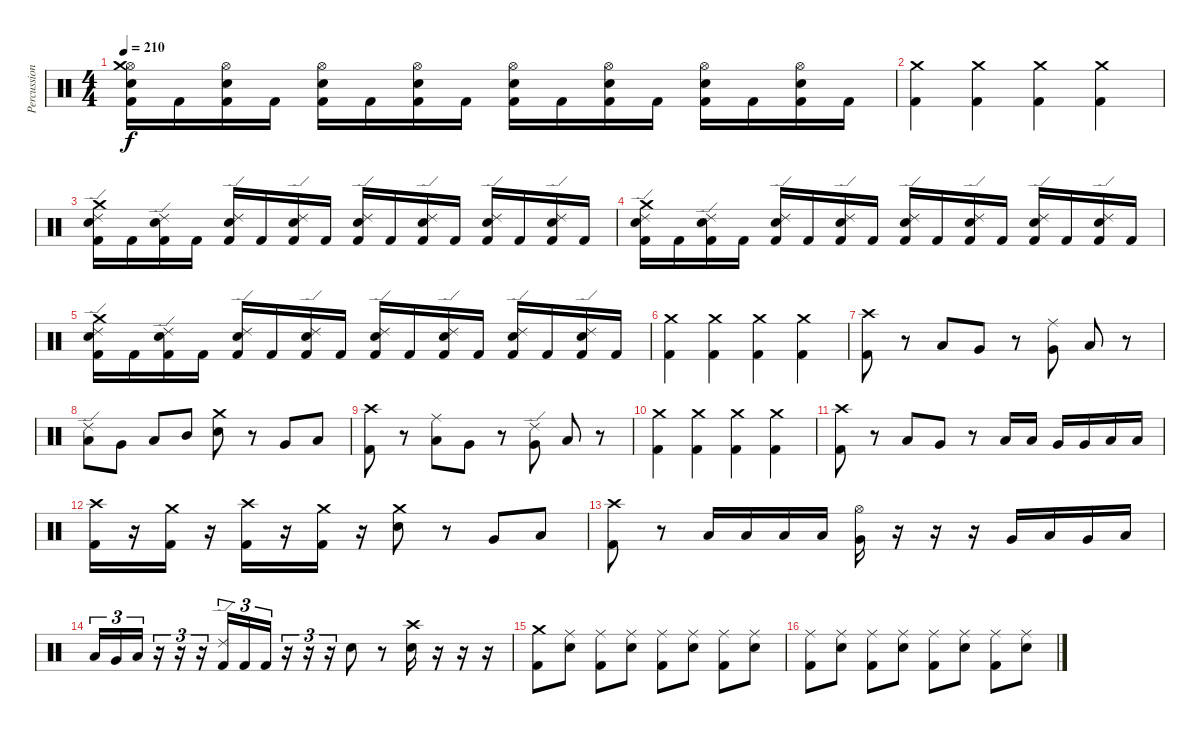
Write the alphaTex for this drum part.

\track ("Percussion" "Percussion") {instrument percussion}
\staff {score}
\articulation defaults
\ts (4 4)
\tempo 210
\clef neutral
\ks c
("Hi-Hat (open)" "Crash medium (hit)" "Snare (hit) 2" "Kick (hit) 2").16{dy f} "Kick (hit) 2".16 ("Hi-Hat (open)" "Snare (hit) 2" "Kick (hit) 2").16 "Kick (hit) 2".16 ("Hi-Hat (open)" "Snare (hit) 2" "Kick (hit) 2").16 "Kick (hit) 2".16 ("Hi-Hat (open)" "Snare (hit) 2" "Kick (hit) 2").16 "Kick (hit) 2".16 ("Hi-Hat (open)" "Snare (hit) 2" "Kick (hit) 2").16 "Kick (hit) 2".16 ("Hi-Hat (open)" "Snare (hit) 2" "Kick (hit) 2").16 "Kick (hit) 2".16 ("Hi-Hat (open)" "Snare (hit) 2" "Kick (hit) 2").16 "Kick (hit) 2".16 ("Hi-Hat (open)" "Snare (hit) 2" "Kick (hit) 2").16 "Kick (hit) 2".16 |
("Crash medium (hit)" "Kick (hit) 2").4 ("Crash medium (hit)" "Kick (hit) 2").4 ("Crash medium (hit)" "Kick (hit) 2").4 ("Crash medium (hit)" "Kick (hit) 2").4 |
("Ride (edge) 2" "Crash medium (hit)" "Snare (hit) 2" "Kick (hit) 2").16 "Kick (hit) 2".16 ("Ride (edge) 2" "Snare (hit) 2" "Kick (hit) 2").16 "Kick (hit) 2".16 ("Ride (edge) 2" "Snare (hit) 2" "Kick (hit) 2").16 "Kick (hit) 2".16 ("Ride (edge) 2" "Snare (hit) 2" "Kick (hit) 2").16 "Kick (hit) 2".16 ("Ride (edge) 2" "Snare (hit) 2" "Kick (hit) 2").16 "Kick (hit) 2".16 ("Ride (edge) 2" "Snare (hit) 2" "Kick (hit) 2").16 "Kick (hit) 2".16 ("Ride (edge) 2" "Snare (hit) 2" "Kick (hit) 2").16 "Kick (hit) 2".16 ("Ride (edge) 2" "Snare (hit) 2" "Kick (hit) 2").16 "Kick (hit) 2".16 |
("Ride (edge) 2" "Crash medium (hit)" "Snare (hit) 2" "Kick (hit) 2").16 "Kick (hit) 2".16 ("Ride (edge) 2" "Snare (hit) 2" "Kick (hit) 2").16 "Kick (hit) 2".16 ("Ride (edge) 2" "Snare (hit) 2" "Kick (hit) 2").16 "Kick (hit) 2".16 ("Ride (edge) 2" "Snare (hit) 2" "Kick (hit) 2").16 "Kick (hit) 2".16 ("Ride (edge) 2" "Snare (hit) 2" "Kick (hit) 2").16 "Kick (hit) 2".16 ("Ride (edge) 2" "Snare (hit) 2" "Kick (hit) 2").16 "Kick (hit) 2".16 ("Ride (edge) 2" "Snare (hit) 2" "Kick (hit) 2").16 "Kick (hit) 2".16 ("Ride (edge) 2" "Snare (hit) 2" "Kick (hit) 2").16 "Kick (hit) 2".16 |
("Ride (edge) 2" "Crash medium (hit)" "Snare (hit) 2" "Kick (hit) 2").16 "Kick (hit) 2".16 ("Ride (edge) 2" "Snare (hit) 2" "Kick (hit) 2").16 "Kick (hit) 2".16 ("Ride (edge) 2" "Snare (hit) 2" "Kick (hit) 2").16 "Kick (hit) 2".16 ("Ride (edge) 2" "Snare (hit) 2" "Kick (hit) 2").16 "Kick (hit) 2".16 ("Ride (edge) 2" "Snare (hit) 2" "Kick (hit) 2").16 "Kick (hit) 2".16 ("Ride (edge) 2" "Snare (hit) 2" "Kick (hit) 2").16 "Kick (hit) 2".16 ("Ride (edge) 2" "Snare (hit) 2" "Kick (hit) 2").16 "Kick (hit) 2".16 ("Ride (edge) 2" "Snare (hit) 2" "Kick (hit) 2").16 "Kick (hit) 2".16 |
("Crash medium (hit)" "Kick (hit) 2").4 ("Crash medium (hit)" "Kick (hit) 2").4 ("Crash medium (hit)" "Kick (hit) 2").4 ("Crash medium (hit)" "Kick (hit) 2").4 |
("Crash high (hit)" "Kick (hit) 2").8 r.8 "Low Tom (hit)".8 "Very Low Tom (hit)".8 r.8 ("Ride (middle)" "Very Low Tom (hit)").8 "Low Floor Tom (hit)".8 r.8 |
("Ride (edge) 2" "Low Tom (hit)").8 "Very Low Tom (hit)".8 "Low Tom (hit)".8 "Mid Tom (hit)".8 ("Crash medium (hit)" "Snare (hit) 2").8 r.8 "Very Low Tom (hit)".8 "Low Floor Tom (hit)".8 |
("Crash high (hit)" "Kick (hit) 2").8 r.8 ("Ride (middle)" "Low Tom (hit)").8 "Very Low Tom (hit)".8 r.8 ("Ride (edge) 2" "Very Low Tom (hit)").8 "Low Floor Tom (hit)".8 r.8 |
("Crash medium (hit)" "Kick (hit) 2").4 ("Crash medium (hit)" "Kick (hit) 2").4 ("Crash medium (hit)" "Kick (hit) 2").4 ("Crash medium (hit)" "Kick (hit) 2").4 |
("Crash high (hit)" "Kick (hit) 2").8 r.8 "Low Tom (hit)".8 "Very Low Tom (hit)".8 r.8 "Low Tom (hit)".16 "Low Tom (hit)".16 "Very Low Tom (hit)".16 "Very Low Tom (hit)".16 "Low Floor Tom (hit)".16 "Low Floor Tom (hit)".16 |
("Crash high (hit)" "Kick (hit) 2").16 r.16 ("Crash medium (hit)" "Kick (hit) 2").16 r.16 ("Crash high (hit)" "Kick (hit) 2").16 r.16 ("Crash medium (hit)" "Kick (hit) 2").16 r.16 ("Crash medium (hit)" "Snare (hit) 2").8 r.8 "Very Low Tom (hit)".8 "Low Floor Tom (hit)".8 |
("Crash high (hit)" "Kick (hit) 2").8 r.8 "Low Tom (hit)".16 "Low Tom (hit)".16 "Low Tom (hit)".16 "Low Tom (hit)".16 ("Hi-Hat (open)" "Very Low Tom (hit)").16 r.16 r.16 r.16 "Very Low Tom (hit)".16 "Low Floor Tom (hit)".16 "Very Low Tom (hit)".16 "Low Floor Tom (hit)".16 |
"Low Tom (hit)".16{tu (3 2)} "Very Low Tom (hit)".16{tu (3 2)} "Low Floor Tom (hit)".16{tu (3 2)} r.16{tu (3 2)} r.16{tu (3 2)} r.16{tu (3 2)} ("Ride (edge) 2" "Kick (hit) 2").16{tu (3 2)} "Kick (hit) 2".16{tu (3 2)} "Kick (hit) 2".16{tu (3 2)} r.16{tu (3 2)} r.16{tu (3 2)} r.16{tu (3 2)} "Snare (hit) 2".8 r.8 ("Crash high (hit)" "Snare (hit) 2").16 r.16 r.16 r.16 |
("Crash medium (hit)" "Kick (hit) 2").8 ("Ride (middle)" "Snare (hit) 2").8 ("Ride (middle)" "Kick (hit) 2").8 ("Ride (middle)" "Snare (hit) 2").8 ("Ride (middle)" "Kick (hit) 2").8 ("Ride (middle)" "Snare (hit) 2").8 ("Ride (middle)" "Kick (hit) 2").8 ("Ride (middle)" "Snare (hit) 2").8 |
("Ride (middle)" "Kick (hit) 2").8 ("Ride (middle)" "Snare (hit) 2").8 ("Ride (middle)" "Kick (hit) 2").8 ("Ride (middle)" "Snare (hit) 2").8 ("Ride (middle)" "Kick (hit) 2").8 ("Ride (middle)" "Snare (hit) 2").8 ("Ride (middle)" "Kick (hit) 2").8 ("Ride (middle)" "Snare (hit) 2").8
